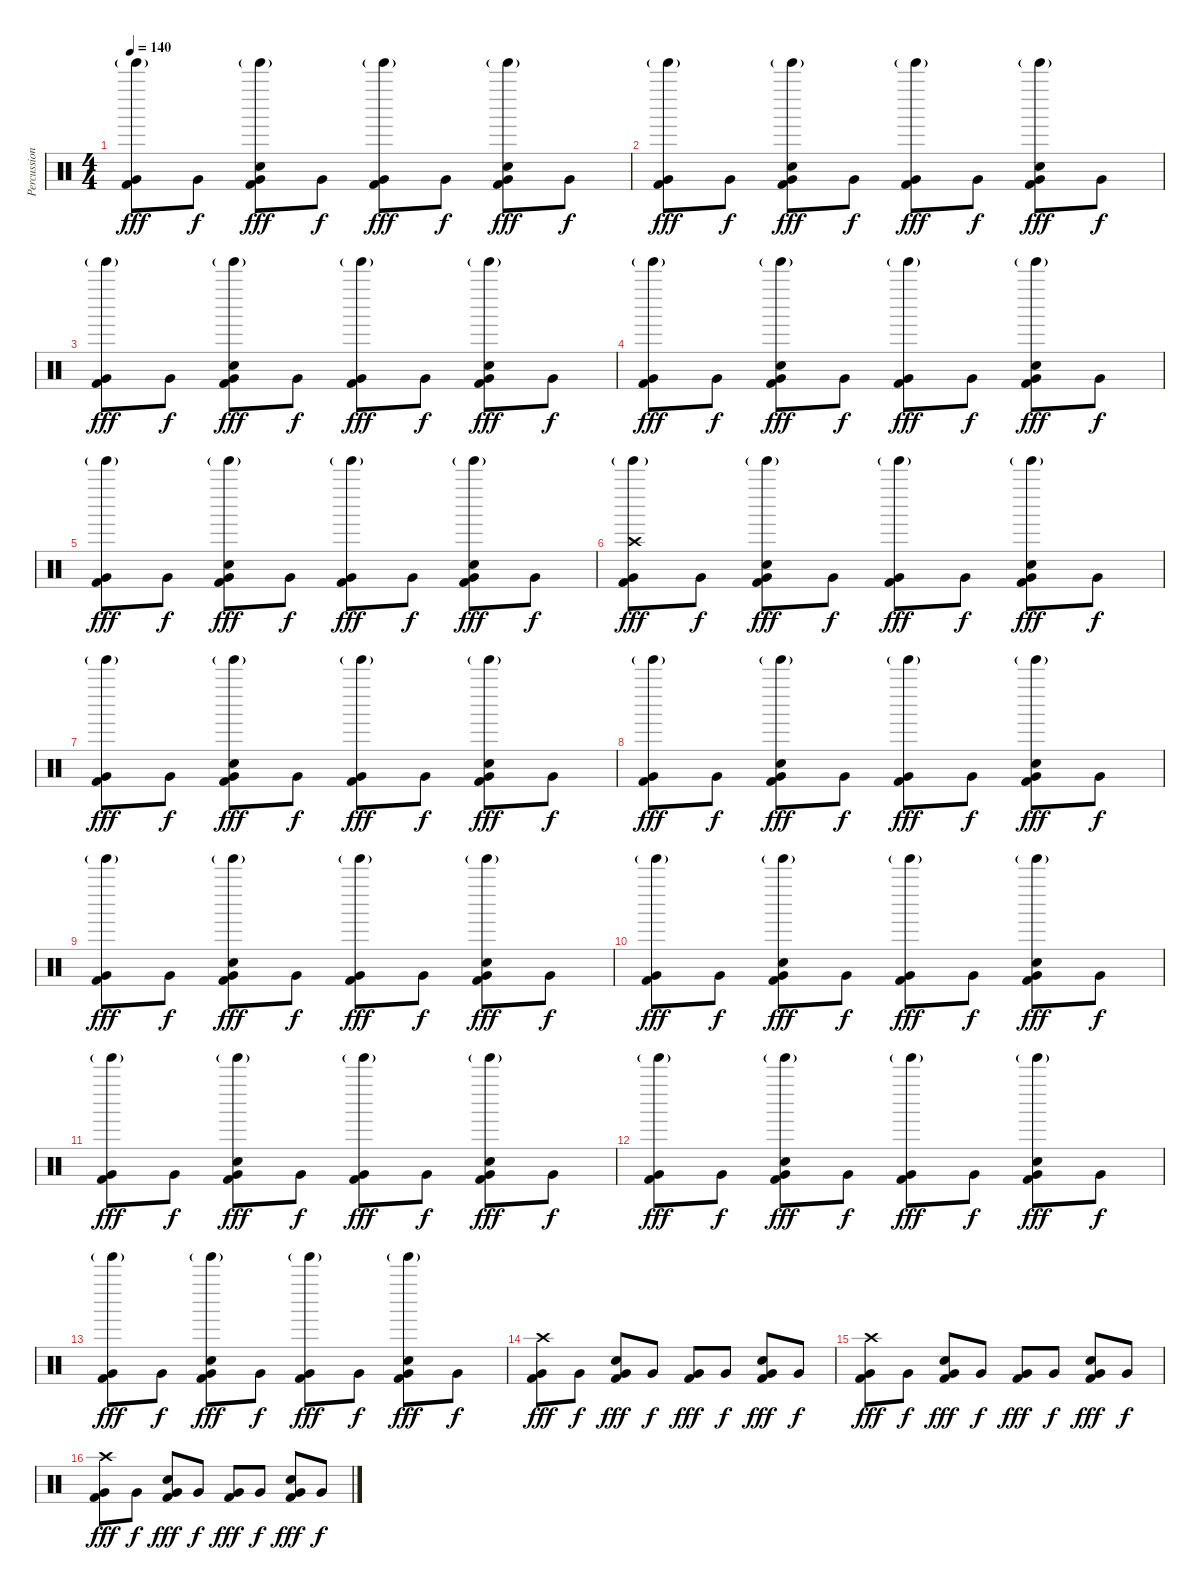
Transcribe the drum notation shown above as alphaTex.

\track ("Percussion" "Percussion") {instrument percussion}
\staff {score}
\articulation defaults
\ts (4 4)
\tempo 140
\clef neutral
\ks c
("Tinkle Bell (hit)"{g} "Very Low Tom (hit)" "Kick (hit) 2").8{dy fff} "Very Low Tom (hit)".8{dy f} ("Tinkle Bell (hit)"{g} "Very Low Tom (hit)" "Snare (hit) 2" "Kick (hit) 2").8{dy fff} "Very Low Tom (hit)".8{dy f} ("Tinkle Bell (hit)"{g} "Very Low Tom (hit)" "Kick (hit) 2").8{dy fff} "Very Low Tom (hit)".8{dy f} ("Tinkle Bell (hit)"{g} "Very Low Tom (hit)" "Snare (hit) 2" "Kick (hit) 2").8{dy fff} "Very Low Tom (hit)".8{dy f} |
("Tinkle Bell (hit)"{g} "Very Low Tom (hit)" "Kick (hit) 2").8{dy fff} "Very Low Tom (hit)".8{dy f} ("Tinkle Bell (hit)"{g} "Very Low Tom (hit)" "Snare (hit) 2" "Kick (hit) 2").8{dy fff} "Very Low Tom (hit)".8{dy f} ("Tinkle Bell (hit)"{g} "Very Low Tom (hit)" "Kick (hit) 2").8{dy fff} "Very Low Tom (hit)".8{dy f} ("Tinkle Bell (hit)"{g} "Very Low Tom (hit)" "Snare (hit) 2" "Kick (hit) 2").8{dy fff} "Very Low Tom (hit)".8{dy f} |
("Tinkle Bell (hit)"{g} "Very Low Tom (hit)" "Kick (hit) 2").8{dy fff} "Very Low Tom (hit)".8{dy f} ("Tinkle Bell (hit)"{g} "Very Low Tom (hit)" "Snare (hit) 2" "Kick (hit) 2").8{dy fff} "Very Low Tom (hit)".8{dy f} ("Tinkle Bell (hit)"{g} "Very Low Tom (hit)" "Kick (hit) 2").8{dy fff} "Very Low Tom (hit)".8{dy f} ("Tinkle Bell (hit)"{g} "Very Low Tom (hit)" "Snare (hit) 2" "Kick (hit) 2").8{dy fff} "Very Low Tom (hit)".8{dy f} |
("Tinkle Bell (hit)"{g} "Very Low Tom (hit)" "Kick (hit) 2").8{dy fff} "Very Low Tom (hit)".8{dy f} ("Tinkle Bell (hit)"{g} "Very Low Tom (hit)" "Snare (hit) 2" "Kick (hit) 2").8{dy fff} "Very Low Tom (hit)".8{dy f} ("Tinkle Bell (hit)"{g} "Very Low Tom (hit)" "Kick (hit) 2").8{dy fff} "Very Low Tom (hit)".8{dy f} ("Tinkle Bell (hit)"{g} "Very Low Tom (hit)" "Snare (hit) 2" "Kick (hit) 2").8{dy fff} "Very Low Tom (hit)".8{dy f} |
("Tinkle Bell (hit)"{g} "Very Low Tom (hit)" "Kick (hit) 2").8{dy fff} "Very Low Tom (hit)".8{dy f} ("Tinkle Bell (hit)"{g} "Very Low Tom (hit)" "Snare (hit) 2" "Kick (hit) 2").8{dy fff} "Very Low Tom (hit)".8{dy f} ("Tinkle Bell (hit)"{g} "Very Low Tom (hit)" "Kick (hit) 2").8{dy fff} "Very Low Tom (hit)".8{dy f} ("Tinkle Bell (hit)"{g} "Very Low Tom (hit)" "Snare (hit) 2" "Kick (hit) 2").8{dy fff} "Very Low Tom (hit)".8{dy f} |
("Crash high (hit)" "Tinkle Bell (hit)"{g} "Very Low Tom (hit)" "Kick (hit) 2").8{dy fff} "Very Low Tom (hit)".8{dy f} ("Tinkle Bell (hit)"{g} "Very Low Tom (hit)" "Snare (hit) 2" "Kick (hit) 2").8{dy fff} "Very Low Tom (hit)".8{dy f} ("Tinkle Bell (hit)"{g} "Very Low Tom (hit)" "Kick (hit) 2").8{dy fff} "Very Low Tom (hit)".8{dy f} ("Tinkle Bell (hit)"{g} "Very Low Tom (hit)" "Snare (hit) 2" "Kick (hit) 2").8{dy fff} "Very Low Tom (hit)".8{dy f} |
("Tinkle Bell (hit)"{g} "Very Low Tom (hit)" "Kick (hit) 2").8{dy fff} "Very Low Tom (hit)".8{dy f} ("Tinkle Bell (hit)"{g} "Very Low Tom (hit)" "Snare (hit) 2" "Kick (hit) 2").8{dy fff} "Very Low Tom (hit)".8{dy f} ("Tinkle Bell (hit)"{g} "Very Low Tom (hit)" "Kick (hit) 2").8{dy fff} "Very Low Tom (hit)".8{dy f} ("Tinkle Bell (hit)"{g} "Very Low Tom (hit)" "Snare (hit) 2" "Kick (hit) 2").8{dy fff} "Very Low Tom (hit)".8{dy f} |
("Tinkle Bell (hit)"{g} "Very Low Tom (hit)" "Kick (hit) 2").8{dy fff} "Very Low Tom (hit)".8{dy f} ("Tinkle Bell (hit)"{g} "Very Low Tom (hit)" "Snare (hit) 2" "Kick (hit) 2").8{dy fff} "Very Low Tom (hit)".8{dy f} ("Tinkle Bell (hit)"{g} "Very Low Tom (hit)" "Kick (hit) 2").8{dy fff} "Very Low Tom (hit)".8{dy f} ("Tinkle Bell (hit)"{g} "Very Low Tom (hit)" "Snare (hit) 2" "Kick (hit) 2").8{dy fff} "Very Low Tom (hit)".8{dy f} |
("Tinkle Bell (hit)"{g} "Very Low Tom (hit)" "Kick (hit) 2").8{dy fff} "Very Low Tom (hit)".8{dy f} ("Tinkle Bell (hit)"{g} "Very Low Tom (hit)" "Snare (hit) 2" "Kick (hit) 2").8{dy fff} "Very Low Tom (hit)".8{dy f} ("Tinkle Bell (hit)"{g} "Very Low Tom (hit)" "Kick (hit) 2").8{dy fff} "Very Low Tom (hit)".8{dy f} ("Tinkle Bell (hit)"{g} "Very Low Tom (hit)" "Snare (hit) 2" "Kick (hit) 2").8{dy fff} "Very Low Tom (hit)".8{dy f} |
("Tinkle Bell (hit)"{g} "Very Low Tom (hit)" "Kick (hit) 2").8{dy fff} "Very Low Tom (hit)".8{dy f} ("Tinkle Bell (hit)"{g} "Very Low Tom (hit)" "Snare (hit) 2" "Kick (hit) 2").8{dy fff} "Very Low Tom (hit)".8{dy f} ("Tinkle Bell (hit)"{g} "Very Low Tom (hit)" "Kick (hit) 2").8{dy fff} "Very Low Tom (hit)".8{dy f} ("Tinkle Bell (hit)"{g} "Very Low Tom (hit)" "Snare (hit) 2" "Kick (hit) 2").8{dy fff} "Very Low Tom (hit)".8{dy f} |
("Tinkle Bell (hit)"{g} "Very Low Tom (hit)" "Kick (hit) 2").8{dy fff} "Very Low Tom (hit)".8{dy f} ("Tinkle Bell (hit)"{g} "Very Low Tom (hit)" "Snare (hit) 2" "Kick (hit) 2").8{dy fff} "Very Low Tom (hit)".8{dy f} ("Tinkle Bell (hit)"{g} "Very Low Tom (hit)" "Kick (hit) 2").8{dy fff} "Very Low Tom (hit)".8{dy f} ("Tinkle Bell (hit)"{g} "Very Low Tom (hit)" "Snare (hit) 2" "Kick (hit) 2").8{dy fff} "Very Low Tom (hit)".8{dy f} |
("Tinkle Bell (hit)"{g} "Very Low Tom (hit)" "Kick (hit) 2").8{dy fff} "Very Low Tom (hit)".8{dy f} ("Tinkle Bell (hit)"{g} "Very Low Tom (hit)" "Snare (hit) 2" "Kick (hit) 2").8{dy fff} "Very Low Tom (hit)".8{dy f} ("Tinkle Bell (hit)"{g} "Very Low Tom (hit)" "Kick (hit) 2").8{dy fff} "Very Low Tom (hit)".8{dy f} ("Tinkle Bell (hit)"{g} "Very Low Tom (hit)" "Snare (hit) 2" "Kick (hit) 2").8{dy fff} "Very Low Tom (hit)".8{dy f} |
("Tinkle Bell (hit)"{g} "Very Low Tom (hit)" "Kick (hit) 2").8{dy fff} "Very Low Tom (hit)".8{dy f} ("Tinkle Bell (hit)"{g} "Very Low Tom (hit)" "Snare (hit) 2" "Kick (hit) 2").8{dy fff} "Very Low Tom (hit)".8{dy f} ("Tinkle Bell (hit)"{g} "Very Low Tom (hit)" "Kick (hit) 2").8{dy fff} "Very Low Tom (hit)".8{dy f} ("Tinkle Bell (hit)"{g} "Very Low Tom (hit)" "Snare (hit) 2" "Kick (hit) 2").8{dy fff} "Very Low Tom (hit)".8{dy f} |
("Crash high (hit)" "Very Low Tom (hit)" "Kick (hit) 2").8{dy fff} "Very Low Tom (hit)".8{dy f} ("Very Low Tom (hit)" "Snare (hit) 2" "Kick (hit) 2").8{dy fff} "Very Low Tom (hit)".8{dy f} ("Very Low Tom (hit)" "Kick (hit) 2").8{dy fff} "Very Low Tom (hit)".8{dy f} ("Very Low Tom (hit)" "Snare (hit) 2" "Kick (hit) 2").8{dy fff} "Very Low Tom (hit)".8{dy f} |
("Crash high (hit)" "Very Low Tom (hit)" "Kick (hit) 2").8{dy fff} "Very Low Tom (hit)".8{dy f} ("Very Low Tom (hit)" "Snare (hit) 2" "Kick (hit) 2").8{dy fff} "Very Low Tom (hit)".8{dy f} ("Very Low Tom (hit)" "Kick (hit) 2").8{dy fff} "Very Low Tom (hit)".8{dy f} ("Very Low Tom (hit)" "Snare (hit) 2" "Kick (hit) 2").8{dy fff} "Very Low Tom (hit)".8{dy f} |
("Crash high (hit)" "Very Low Tom (hit)" "Kick (hit) 2").8{dy fff} "Very Low Tom (hit)".8{dy f} ("Very Low Tom (hit)" "Snare (hit) 2" "Kick (hit) 2").8{dy fff} "Very Low Tom (hit)".8{dy f} ("Very Low Tom (hit)" "Kick (hit) 2").8{dy fff} "Very Low Tom (hit)".8{dy f} ("Very Low Tom (hit)" "Snare (hit) 2" "Kick (hit) 2").8{dy fff} "Very Low Tom (hit)".8{dy f}
